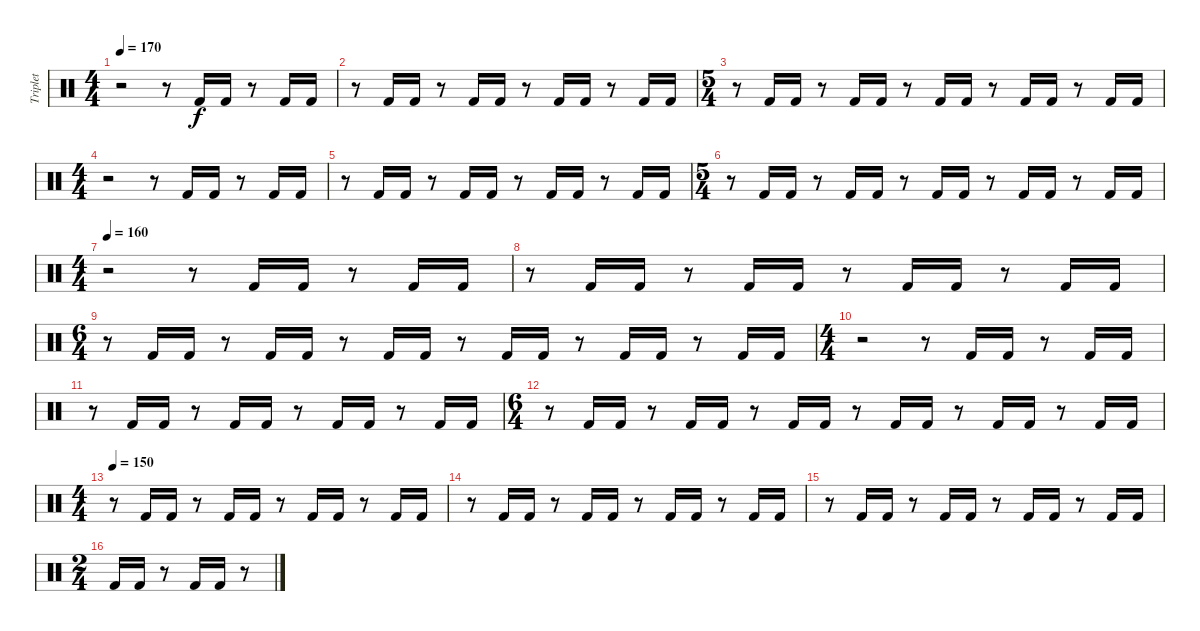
\track ("Triplet" "Triplet") {instrument percussion}
\staff {score}
\articulation defaults
\ts (4 4)
\tempo 170
\clef neutral
\ks c
r.2{dy f} r.8 "Kick (hit) 2".16 "Kick (hit) 2".16 r.8 "Kick (hit) 2".16 "Kick (hit) 2".16 |
r.8 "Kick (hit) 2".16 "Kick (hit) 2".16 r.8 "Kick (hit) 2".16 "Kick (hit) 2".16 r.8 "Kick (hit) 2".16 "Kick (hit) 2".16 r.8 "Kick (hit) 2".16 "Kick (hit) 2".16 |
\ts (5 4)
r.8 "Kick (hit) 2".16 "Kick (hit) 2".16 r.8 "Kick (hit) 2".16 "Kick (hit) 2".16 r.8 "Kick (hit) 2".16 "Kick (hit) 2".16 r.8 "Kick (hit) 2".16 "Kick (hit) 2".16 r.8 "Kick (hit) 2".16 "Kick (hit) 2".16 |
\ts (4 4)
r.2 r.8 "Kick (hit) 2".16 "Kick (hit) 2".16 r.8 "Kick (hit) 2".16 "Kick (hit) 2".16 |
r.8 "Kick (hit) 2".16 "Kick (hit) 2".16 r.8 "Kick (hit) 2".16 "Kick (hit) 2".16 r.8 "Kick (hit) 2".16 "Kick (hit) 2".16 r.8 "Kick (hit) 2".16 "Kick (hit) 2".16 |
\ts (5 4)
r.8 "Kick (hit) 2".16 "Kick (hit) 2".16 r.8 "Kick (hit) 2".16 "Kick (hit) 2".16 r.8 "Kick (hit) 2".16 "Kick (hit) 2".16 r.8 "Kick (hit) 2".16 "Kick (hit) 2".16 r.8 "Kick (hit) 2".16 "Kick (hit) 2".16 |
\ts (4 4)
\tempo 160
r.2 r.8 "Kick (hit) 2".16 "Kick (hit) 2".16 r.8 "Kick (hit) 2".16 "Kick (hit) 2".16 |
r.8 "Kick (hit) 2".16 "Kick (hit) 2".16 r.8 "Kick (hit) 2".16 "Kick (hit) 2".16 r.8 "Kick (hit) 2".16 "Kick (hit) 2".16 r.8 "Kick (hit) 2".16 "Kick (hit) 2".16 |
\ts (6 4)
r.8 "Kick (hit) 2".16 "Kick (hit) 2".16 r.8 "Kick (hit) 2".16 "Kick (hit) 2".16 r.8 "Kick (hit) 2".16 "Kick (hit) 2".16 r.8 "Kick (hit) 2".16 "Kick (hit) 2".16 r.8 "Kick (hit) 2".16 "Kick (hit) 2".16 r.8 "Kick (hit) 2".16 "Kick (hit) 2".16 |
\ts (4 4)
r.2 r.8 "Kick (hit) 2".16 "Kick (hit) 2".16 r.8 "Kick (hit) 2".16 "Kick (hit) 2".16 |
r.8 "Kick (hit) 2".16 "Kick (hit) 2".16 r.8 "Kick (hit) 2".16 "Kick (hit) 2".16 r.8 "Kick (hit) 2".16 "Kick (hit) 2".16 r.8 "Kick (hit) 2".16 "Kick (hit) 2".16 |
\ts (6 4)
r.8 "Kick (hit) 2".16 "Kick (hit) 2".16 r.8 "Kick (hit) 2".16 "Kick (hit) 2".16 r.8 "Kick (hit) 2".16 "Kick (hit) 2".16 r.8 "Kick (hit) 2".16 "Kick (hit) 2".16 r.8 "Kick (hit) 2".16 "Kick (hit) 2".16 r.8 "Kick (hit) 2".16 "Kick (hit) 2".16 |
\ts (4 4)
\tempo 150
r.8 "Kick (hit) 2".16 "Kick (hit) 2".16 r.8 "Kick (hit) 2".16 "Kick (hit) 2".16 r.8 "Kick (hit) 2".16 "Kick (hit) 2".16 r.8 "Kick (hit) 2".16 "Kick (hit) 2".16 |
r.8 "Kick (hit) 2".16 "Kick (hit) 2".16 r.8 "Kick (hit) 2".16 "Kick (hit) 2".16 r.8 "Kick (hit) 2".16 "Kick (hit) 2".16 r.8 "Kick (hit) 2".16 "Kick (hit) 2".16 |
r.8 "Kick (hit) 2".16 "Kick (hit) 2".16 r.8 "Kick (hit) 2".16 "Kick (hit) 2".16 r.8 "Kick (hit) 2".16 "Kick (hit) 2".16 r.8 "Kick (hit) 2".16 "Kick (hit) 2".16 |
\ts (2 4)
"Kick (hit) 2".16 "Kick (hit) 2".16 r.8 "Kick (hit) 2".16 "Kick (hit) 2".16 r.8
